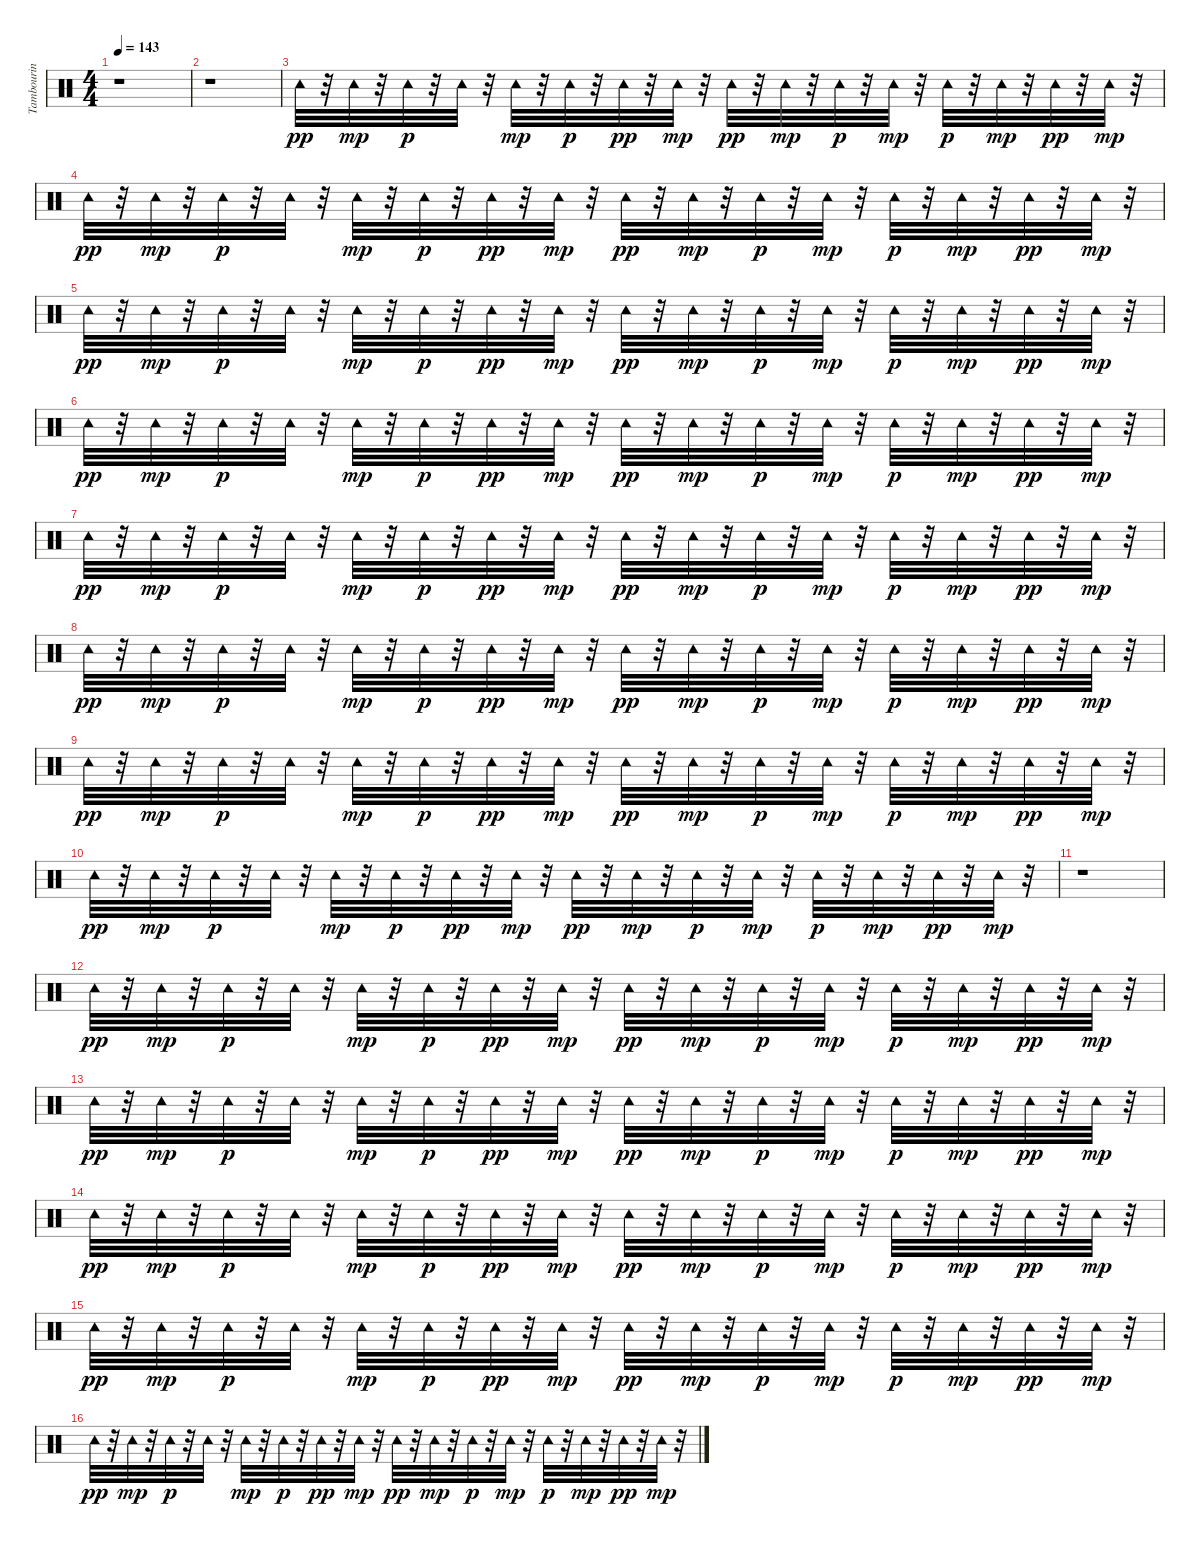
\track ("Tambourin" "Tambourin") {instrument percussion}
\staff {score}
\articulation defaults
\ts (4 4)
\tempo 143
\clef neutral
\ks c
r.1{dy mp} |
r.1 |
"Tambourine (hit)".32{dy pp} r.32 "Tambourine (hit)".32{dy mp} r.32 "Tambourine (hit)".32{dy p} r.32 "Tambourine (hit)".32 r.32 "Tambourine (hit)".32{dy mp} r.32 "Tambourine (hit)".32{dy p} r.32 "Tambourine (hit)".32{dy pp} r.32 "Tambourine (hit)".32{dy mp} r.32 "Tambourine (hit)".32{dy pp} r.32 "Tambourine (hit)".32{dy mp} r.32 "Tambourine (hit)".32{dy p} r.32 "Tambourine (hit)".32{dy mp} r.32 "Tambourine (hit)".32{dy p} r.32 "Tambourine (hit)".32{dy mp} r.32 "Tambourine (hit)".32{dy pp} r.32 "Tambourine (hit)".32{dy mp} r.32 |
"Tambourine (hit)".32{dy pp} r.32 "Tambourine (hit)".32{dy mp} r.32 "Tambourine (hit)".32{dy p} r.32 "Tambourine (hit)".32 r.32 "Tambourine (hit)".32{dy mp} r.32 "Tambourine (hit)".32{dy p} r.32 "Tambourine (hit)".32{dy pp} r.32 "Tambourine (hit)".32{dy mp} r.32 "Tambourine (hit)".32{dy pp} r.32 "Tambourine (hit)".32{dy mp} r.32 "Tambourine (hit)".32{dy p} r.32 "Tambourine (hit)".32{dy mp} r.32 "Tambourine (hit)".32{dy p} r.32 "Tambourine (hit)".32{dy mp} r.32 "Tambourine (hit)".32{dy pp} r.32 "Tambourine (hit)".32{dy mp} r.32 |
"Tambourine (hit)".32{dy pp} r.32 "Tambourine (hit)".32{dy mp} r.32 "Tambourine (hit)".32{dy p} r.32 "Tambourine (hit)".32 r.32 "Tambourine (hit)".32{dy mp} r.32 "Tambourine (hit)".32{dy p} r.32 "Tambourine (hit)".32{dy pp} r.32 "Tambourine (hit)".32{dy mp} r.32 "Tambourine (hit)".32{dy pp} r.32 "Tambourine (hit)".32{dy mp} r.32 "Tambourine (hit)".32{dy p} r.32 "Tambourine (hit)".32{dy mp} r.32 "Tambourine (hit)".32{dy p} r.32 "Tambourine (hit)".32{dy mp} r.32 "Tambourine (hit)".32{dy pp} r.32 "Tambourine (hit)".32{dy mp} r.32 |
"Tambourine (hit)".32{dy pp} r.32 "Tambourine (hit)".32{dy mp} r.32 "Tambourine (hit)".32{dy p} r.32 "Tambourine (hit)".32 r.32 "Tambourine (hit)".32{dy mp} r.32 "Tambourine (hit)".32{dy p} r.32 "Tambourine (hit)".32{dy pp} r.32 "Tambourine (hit)".32{dy mp} r.32 "Tambourine (hit)".32{dy pp} r.32 "Tambourine (hit)".32{dy mp} r.32 "Tambourine (hit)".32{dy p} r.32 "Tambourine (hit)".32{dy mp} r.32 "Tambourine (hit)".32{dy p} r.32 "Tambourine (hit)".32{dy mp} r.32 "Tambourine (hit)".32{dy pp} r.32 "Tambourine (hit)".32{dy mp} r.32 |
"Tambourine (hit)".32{dy pp} r.32 "Tambourine (hit)".32{dy mp} r.32 "Tambourine (hit)".32{dy p} r.32 "Tambourine (hit)".32 r.32 "Tambourine (hit)".32{dy mp} r.32 "Tambourine (hit)".32{dy p} r.32 "Tambourine (hit)".32{dy pp} r.32 "Tambourine (hit)".32{dy mp} r.32 "Tambourine (hit)".32{dy pp} r.32 "Tambourine (hit)".32{dy mp} r.32 "Tambourine (hit)".32{dy p} r.32 "Tambourine (hit)".32{dy mp} r.32 "Tambourine (hit)".32{dy p} r.32 "Tambourine (hit)".32{dy mp} r.32 "Tambourine (hit)".32{dy pp} r.32 "Tambourine (hit)".32{dy mp} r.32 |
"Tambourine (hit)".32{dy pp} r.32 "Tambourine (hit)".32{dy mp} r.32 "Tambourine (hit)".32{dy p} r.32 "Tambourine (hit)".32 r.32 "Tambourine (hit)".32{dy mp} r.32 "Tambourine (hit)".32{dy p} r.32 "Tambourine (hit)".32{dy pp} r.32 "Tambourine (hit)".32{dy mp} r.32 "Tambourine (hit)".32{dy pp} r.32 "Tambourine (hit)".32{dy mp} r.32 "Tambourine (hit)".32{dy p} r.32 "Tambourine (hit)".32{dy mp} r.32 "Tambourine (hit)".32{dy p} r.32 "Tambourine (hit)".32{dy mp} r.32 "Tambourine (hit)".32{dy pp} r.32 "Tambourine (hit)".32{dy mp} r.32 |
"Tambourine (hit)".32{dy pp} r.32 "Tambourine (hit)".32{dy mp} r.32 "Tambourine (hit)".32{dy p} r.32 "Tambourine (hit)".32 r.32 "Tambourine (hit)".32{dy mp} r.32 "Tambourine (hit)".32{dy p} r.32 "Tambourine (hit)".32{dy pp} r.32 "Tambourine (hit)".32{dy mp} r.32 "Tambourine (hit)".32{dy pp} r.32 "Tambourine (hit)".32{dy mp} r.32 "Tambourine (hit)".32{dy p} r.32 "Tambourine (hit)".32{dy mp} r.32 "Tambourine (hit)".32{dy p} r.32 "Tambourine (hit)".32{dy mp} r.32 "Tambourine (hit)".32{dy pp} r.32 "Tambourine (hit)".32{dy mp} r.32 |
"Tambourine (hit)".32{dy pp} r.32 "Tambourine (hit)".32{dy mp} r.32 "Tambourine (hit)".32{dy p} r.32 "Tambourine (hit)".32 r.32 "Tambourine (hit)".32{dy mp} r.32 "Tambourine (hit)".32{dy p} r.32 "Tambourine (hit)".32{dy pp} r.32 "Tambourine (hit)".32{dy mp} r.32 "Tambourine (hit)".32{dy pp} r.32 "Tambourine (hit)".32{dy mp} r.32 "Tambourine (hit)".32{dy p} r.32 "Tambourine (hit)".32{dy mp} r.32 "Tambourine (hit)".32{dy p} r.32 "Tambourine (hit)".32{dy mp} r.32 "Tambourine (hit)".32{dy pp} r.32 "Tambourine (hit)".32{dy mp} r.32 |
r.1 |
"Tambourine (hit)".32{dy pp} r.32 "Tambourine (hit)".32{dy mp} r.32 "Tambourine (hit)".32{dy p} r.32 "Tambourine (hit)".32 r.32 "Tambourine (hit)".32{dy mp} r.32 "Tambourine (hit)".32{dy p} r.32 "Tambourine (hit)".32{dy pp} r.32 "Tambourine (hit)".32{dy mp} r.32 "Tambourine (hit)".32{dy pp} r.32 "Tambourine (hit)".32{dy mp} r.32 "Tambourine (hit)".32{dy p} r.32 "Tambourine (hit)".32{dy mp} r.32 "Tambourine (hit)".32{dy p} r.32 "Tambourine (hit)".32{dy mp} r.32 "Tambourine (hit)".32{dy pp} r.32 "Tambourine (hit)".32{dy mp} r.32 |
"Tambourine (hit)".32{dy pp} r.32 "Tambourine (hit)".32{dy mp} r.32 "Tambourine (hit)".32{dy p} r.32 "Tambourine (hit)".32 r.32 "Tambourine (hit)".32{dy mp} r.32 "Tambourine (hit)".32{dy p} r.32 "Tambourine (hit)".32{dy pp} r.32 "Tambourine (hit)".32{dy mp} r.32 "Tambourine (hit)".32{dy pp} r.32 "Tambourine (hit)".32{dy mp} r.32 "Tambourine (hit)".32{dy p} r.32 "Tambourine (hit)".32{dy mp} r.32 "Tambourine (hit)".32{dy p} r.32 "Tambourine (hit)".32{dy mp} r.32 "Tambourine (hit)".32{dy pp} r.32 "Tambourine (hit)".32{dy mp} r.32 |
"Tambourine (hit)".32{dy pp} r.32 "Tambourine (hit)".32{dy mp} r.32 "Tambourine (hit)".32{dy p} r.32 "Tambourine (hit)".32 r.32 "Tambourine (hit)".32{dy mp} r.32 "Tambourine (hit)".32{dy p} r.32 "Tambourine (hit)".32{dy pp} r.32 "Tambourine (hit)".32{dy mp} r.32 "Tambourine (hit)".32{dy pp} r.32 "Tambourine (hit)".32{dy mp} r.32 "Tambourine (hit)".32{dy p} r.32 "Tambourine (hit)".32{dy mp} r.32 "Tambourine (hit)".32{dy p} r.32 "Tambourine (hit)".32{dy mp} r.32 "Tambourine (hit)".32{dy pp} r.32 "Tambourine (hit)".32{dy mp} r.32 |
"Tambourine (hit)".32{dy pp} r.32 "Tambourine (hit)".32{dy mp} r.32 "Tambourine (hit)".32{dy p} r.32 "Tambourine (hit)".32 r.32 "Tambourine (hit)".32{dy mp} r.32 "Tambourine (hit)".32{dy p} r.32 "Tambourine (hit)".32{dy pp} r.32 "Tambourine (hit)".32{dy mp} r.32 "Tambourine (hit)".32{dy pp} r.32 "Tambourine (hit)".32{dy mp} r.32 "Tambourine (hit)".32{dy p} r.32 "Tambourine (hit)".32{dy mp} r.32 "Tambourine (hit)".32{dy p} r.32 "Tambourine (hit)".32{dy mp} r.32 "Tambourine (hit)".32{dy pp} r.32 "Tambourine (hit)".32{dy mp} r.32 |
"Tambourine (hit)".32{dy pp} r.32 "Tambourine (hit)".32{dy mp} r.32 "Tambourine (hit)".32{dy p} r.32 "Tambourine (hit)".32 r.32 "Tambourine (hit)".32{dy mp} r.32 "Tambourine (hit)".32{dy p} r.32 "Tambourine (hit)".32{dy pp} r.32 "Tambourine (hit)".32{dy mp} r.32 "Tambourine (hit)".32{dy pp} r.32 "Tambourine (hit)".32{dy mp} r.32 "Tambourine (hit)".32{dy p} r.32 "Tambourine (hit)".32{dy mp} r.32 "Tambourine (hit)".32{dy p} r.32 "Tambourine (hit)".32{dy mp} r.32 "Tambourine (hit)".32{dy pp} r.32 "Tambourine (hit)".32{dy mp} r.32
